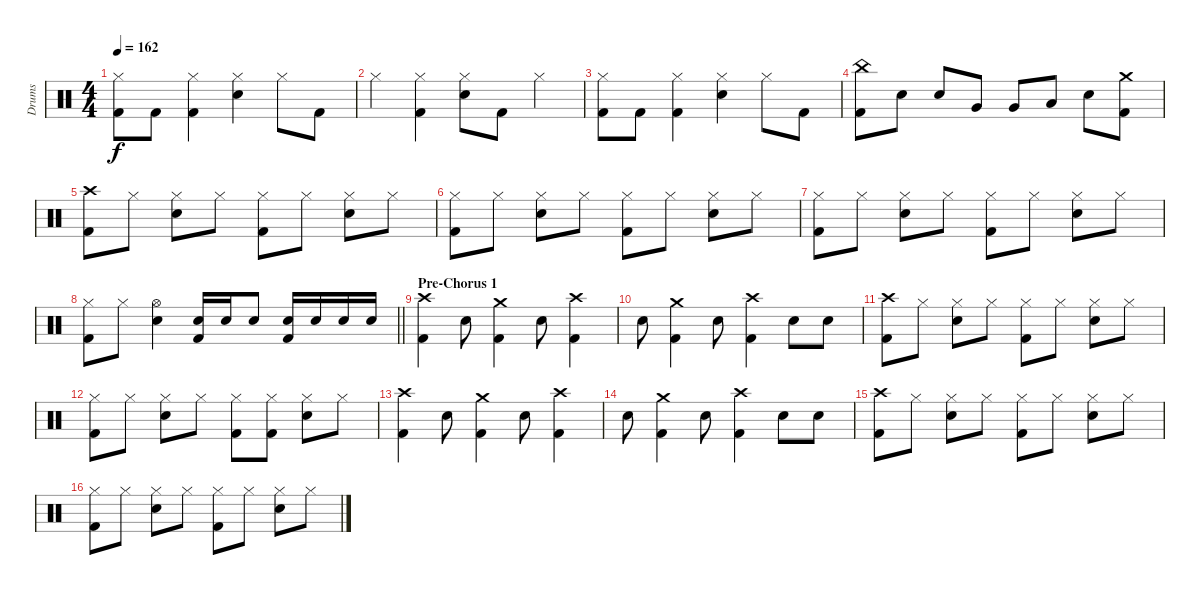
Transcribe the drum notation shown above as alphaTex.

\track ("Drums" "Drums") {instrument percussion}
\staff {score}
\articulation defaults
\ts (4 4)
\tempo 162
\clef neutral
\ks c
("Hi-Hat (closed)" "Kick (hit) 2").8{dy f} "Kick (hit) 2".8 ("Hi-Hat (closed)" "Kick (hit) 2").4 ("Hi-Hat (closed)" "Electric Snare (hit)").4 "Hi-Hat (closed)".8 "Kick (hit) 2".8 |
"Hi-Hat (closed)".4 ("Hi-Hat (closed)" "Kick (hit) 2").4 ("Hi-Hat (closed)" "Electric Snare (hit)").8 "Kick (hit) 2".8 "Hi-Hat (closed)".4 |
("Hi-Hat (closed)" "Kick (hit) 2").8 "Kick (hit) 2".8 ("Hi-Hat (closed)" "Kick (hit) 2").4 ("Hi-Hat (closed)" "Electric Snare (hit)").4 "Hi-Hat (closed)".8 "Kick (hit) 2".8 |
("China (hit)" "Kick (hit) 2").8 "Electric Snare (hit)".8 "Electric Snare (hit)".8 "Very Low Tom (hit)".8 "Very Low Tom (hit)".8 "Low Tom (hit)".8 "Electric Snare (hit)".8 ("Crash medium (hit)" "Kick (hit) 2").8 |
("Crash high (hit)" "Kick (hit) 2").8 "Hi-Hat (closed)".8 ("Hi-Hat (closed)" "Electric Snare (hit)").8 "Hi-Hat (closed)".8 ("Hi-Hat (closed)" "Kick (hit) 2").8 "Hi-Hat (closed)".8 ("Hi-Hat (closed)" "Electric Snare (hit)").8 "Hi-Hat (closed)".8 |
("Hi-Hat (closed)" "Kick (hit) 2").8 "Hi-Hat (closed)".8 ("Hi-Hat (closed)" "Electric Snare (hit)").8 "Hi-Hat (closed)".8 ("Hi-Hat (closed)" "Kick (hit) 2").8 "Hi-Hat (closed)".8 ("Hi-Hat (closed)" "Electric Snare (hit)").8 "Hi-Hat (closed)".8 |
("Hi-Hat (closed)" "Kick (hit) 2").8 "Hi-Hat (closed)".8 ("Hi-Hat (closed)" "Electric Snare (hit)").8 "Hi-Hat (closed)".8 ("Hi-Hat (closed)" "Kick (hit) 2").8 "Hi-Hat (closed)".8 ("Hi-Hat (closed)" "Electric Snare (hit)").8 "Hi-Hat (closed)".8 |
\barLineRight lightlight
("Hi-Hat (closed)" "Kick (hit) 2").8 "Hi-Hat (closed)".8 ("Hi-Hat (open)" "Electric Snare (hit)").4 ("Electric Snare (hit)" "Kick (hit) 2").16 "Electric Snare (hit)".16 "Electric Snare (hit)".8 ("Electric Snare (hit)" "Kick (hit) 2").16 "Electric Snare (hit)".16 "Electric Snare (hit)".16 "Electric Snare (hit)".16 |
\section ("" "Pre-Chorus 1")
("Crash high (hit)" "Kick (hit) 2").4 "Electric Snare (hit)".8 ("Crash medium (hit)" "Kick (hit) 2").4 "Electric Snare (hit)".8 ("Crash high (hit)" "Kick (hit) 2").4 |
"Electric Snare (hit)".8 ("Crash medium (hit)" "Kick (hit) 2").4 "Electric Snare (hit)".8 ("Crash high (hit)" "Kick (hit) 2").4 "Electric Snare (hit)".8 "Electric Snare (hit)".8 |
("Crash high (hit)" "Kick (hit) 2").8 "Hi-Hat (closed)".8 ("Hi-Hat (closed)" "Electric Snare (hit)").8 "Hi-Hat (closed)".8 ("Hi-Hat (closed)" "Kick (hit) 2").8 "Hi-Hat (closed)".8 ("Hi-Hat (closed)" "Electric Snare (hit)").8 "Hi-Hat (closed)".8 |
("Hi-Hat (closed)" "Kick (hit) 2").8 "Hi-Hat (closed)".8 ("Hi-Hat (closed)" "Electric Snare (hit)").8 "Hi-Hat (closed)".8 ("Hi-Hat (closed)" "Kick (hit) 2").8 ("Hi-Hat (closed)" "Kick (hit) 2").8 ("Hi-Hat (closed)" "Electric Snare (hit)").8 "Hi-Hat (closed)".8 |
("Crash high (hit)" "Kick (hit) 2").4 "Electric Snare (hit)".8 ("Crash medium (hit)" "Kick (hit) 2").4 "Electric Snare (hit)".8 ("Crash high (hit)" "Kick (hit) 2").4 |
"Electric Snare (hit)".8 ("Crash medium (hit)" "Kick (hit) 2").4 "Electric Snare (hit)".8 ("Crash high (hit)" "Kick (hit) 2").4 "Electric Snare (hit)".8 "Electric Snare (hit)".8 |
("Crash high (hit)" "Kick (hit) 2").8 "Hi-Hat (closed)".8 ("Hi-Hat (closed)" "Electric Snare (hit)").8 "Hi-Hat (closed)".8 ("Hi-Hat (closed)" "Kick (hit) 2").8 "Hi-Hat (closed)".8 ("Hi-Hat (closed)" "Electric Snare (hit)").8 "Hi-Hat (closed)".8 |
("Hi-Hat (closed)" "Kick (hit) 2").8 "Hi-Hat (closed)".8 ("Hi-Hat (closed)" "Electric Snare (hit)").8 "Hi-Hat (closed)".8 ("Hi-Hat (closed)" "Kick (hit) 2").8 "Hi-Hat (closed)".8 ("Hi-Hat (closed)" "Electric Snare (hit)").8 "Hi-Hat (closed)".8
